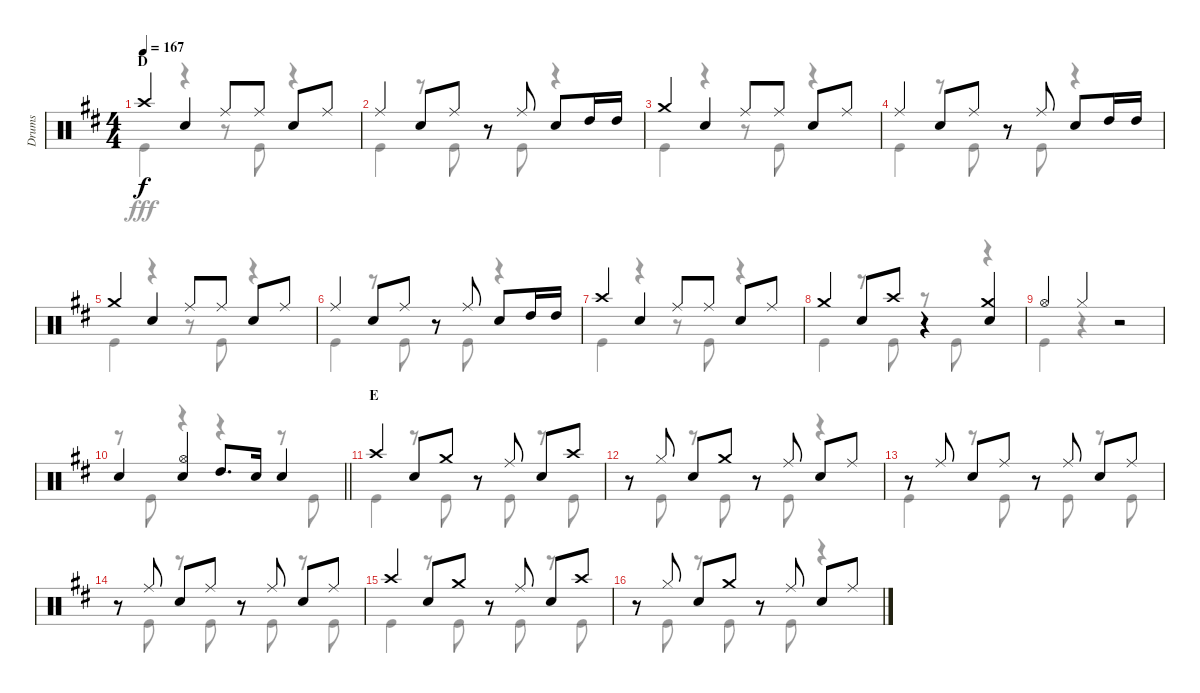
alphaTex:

\track ("Drums" "Drums") {instrument percussion}
\staff {score}
\articulation defaults
\voice
\ts (4 4)
\section ("" "D")
\tempo 167
\clef neutral
\ks d "Crash high (hit)".4{dy f} "Snare (hit) 2".4 "Ride (middle)".8 "Ride (middle)".8 "Snare (hit) 2".8 "Ride (middle)".8
|
"Ride (middle)".4 "Snare (hit) 2".8 "Ride (middle)".8 r.8 "Ride (middle)".8 "Snare (hit) 2".8 "High Tom (hit)".16 "High Tom (hit)".16 |
"Crash medium (hit)".4 "Snare (hit) 2".4 "Ride (middle)".8 "Ride (middle)".8 "Snare (hit) 2".8 "Ride (middle)".8 |
"Ride (middle)".4 "Snare (hit) 2".8 "Ride (middle)".8 r.8 "Ride (middle)".8 "Snare (hit) 2".8 "High Tom (hit)".16 "High Tom (hit)".16 |
"Crash medium (hit)".4 "Snare (hit) 2".4 "Ride (middle)".8 "Ride (middle)".8 "Snare (hit) 2".8 "Ride (middle)".8 |
"Ride (middle)".4 "Snare (hit) 2".8 "Ride (middle)".8 r.8 "Ride (middle)".8 "Snare (hit) 2".8 "High Tom (hit)".16 "High Tom (hit)".16 |
"Crash high (hit)".4 "Snare (hit) 2".4 "Ride (middle)".8 "Ride (middle)".8 "Snare (hit) 2".8 "Ride (middle)".8 |
"Crash medium (hit)".4 "Snare (hit) 2".8 "Crash high (hit)".8 r.4 ("Crash medium (hit)" "Snare (hit) 2").4 |
"Hi-Hat (open)".4 "Hi-Hat (closed)".4 r.2 |
\barLineRight lightlight "Snare (hit) 2".4
("Hi-Hat (open)" "Snare (hit) 2").4 "High Tom (hit)".8{d} "Snare (hit) 2".16 "Snare (hit) 2".4 |
\section ("" "E")
"Crash high (hit)".4 "Snare (hit) 2".8 "Crash medium (hit)".8 r.8 "Ride (middle)".8 "Snare (hit) 2".8 "Crash high (hit)".8 |
r.8 "Hi-Hat (closed)".8 "Snare (hit) 2".8 "Crash medium (hit)".8 r.8 "Ride (middle)".8 "Snare (hit) 2".8 "Ride (middle)".8 |
r.8 "Ride (middle)".8 "Snare (hit) 2".8 "Ride (middle)".8 r.8 "Ride (middle)".8 "Snare (hit) 2".8 "Ride (middle)".8 |
r.8 "Ride (middle)".8 "Snare (hit) 2".8 "Ride (middle)".8 r.8 "Ride (middle)".8 "Snare (hit) 2".8 "Ride (middle)".8 |
"Crash high (hit)".4 "Snare (hit) 2".8 "Crash medium (hit)".8 r.8 "Ride (middle)".8 "Snare (hit) 2".8 "Crash high (hit)".8 |
r.8 "Hi-Hat (closed)".8 "Snare (hit) 2".8 "Crash medium (hit)".8 r.8 "Ride (middle)".8 "Snare (hit) 2".8 "Ride (middle)".8
\voice
\clef neutral
\ottava regular
\simile none
\ks d "Kick (hit)".4{dy fff}
r.4 r.8 "Kick (hit)".8 r.4 |
"Kick (hit)".4 r.8 "Kick (hit)".8 r.8 "Kick (hit)".8 r.4 |
"Kick (hit)".4 r.4 r.8 "Kick (hit)".8 r.4 |
"Kick (hit)".4 r.8 "Kick (hit)".8 r.8 "Kick (hit)".8 r.4 |
"Kick (hit)".4 r.4 r.8 "Kick (hit)".8 r.4 |
"Kick (hit)".4 r.8 "Kick (hit)".8 r.8 "Kick (hit)".8 r.4 |
"Kick (hit)".4 r.4 r.8 "Kick (hit)".8 r.4 |
"Kick (hit)".4 r.8 "Kick (hit)".8 r.8 "Kick (hit)".8 r.4 |
"Kick (hit)".4 r.4 r.2 |
\barLineRight lightlight
r.8 "Kick (hit)".8 r.4 r.4 r.8 "Kick (hit)".8 |
"Kick (hit)".4 r.8 "Kick (hit)".8 r.8 "Kick (hit)".8 r.8 "Kick (hit)".8 |
r.8 "Kick (hit)".8 r.8 "Kick (hit)".8 r.8 "Kick (hit)".8 r.4 |
"Kick (hit)".4 r.8 "Kick (hit)".8 r.8 "Kick (hit)".8 r.8 "Kick (hit)".8 |
r.8 "Kick (hit)".8 r.8 "Kick (hit)".8 r.8 "Kick (hit)".8 r.8 "Kick (hit)".8 |
"Kick (hit)".4 r.8 "Kick (hit)".8 r.8 "Kick (hit)".8 r.8 "Kick (hit)".8 |
r.8 "Kick (hit)".8 r.8 "Kick (hit)".8 r.8 "Kick (hit)".8 r.4
